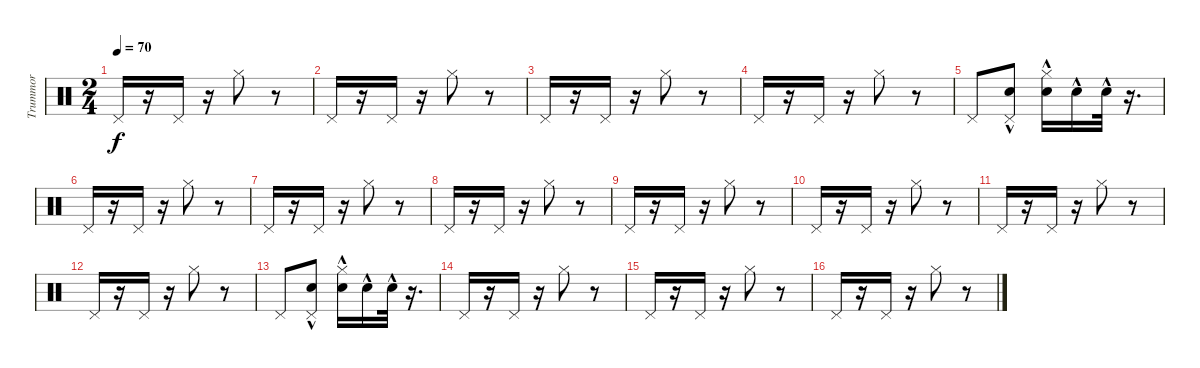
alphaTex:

\track ("Trummor" "Trummor") {instrument percussion}
\staff {score}
\articulation defaults
\ts (2 4)
\tempo 70
\clef neutral
\ks c "Pedal Hi-Hat (hit)".16{dy f}
r.16 "Pedal Hi-Hat (hit)".16 r.16 "Hi-Hat (closed)".8 r.8 |
"Pedal Hi-Hat (hit)".16 r.16 "Pedal Hi-Hat (hit)".16 r.16 "Hi-Hat (closed)".8 r.8 |
"Pedal Hi-Hat (hit)".16 r.16 "Pedal Hi-Hat (hit)".16 r.16 "Hi-Hat (closed)".8 r.8 |
"Pedal Hi-Hat (hit)".16 r.16 "Pedal Hi-Hat (hit)".16 r.16 "Hi-Hat (closed)".8 r.8 |
"Pedal Hi-Hat (hit)".8 ("Pedal Hi-Hat (hit)" "Snare (hit) 2"{hac}).8 ("Hi-Hat (closed)" "Snare (hit) 2"{hac}).16 "Snare (hit) 2"{hac}.16 "Snare (hit) 2"{hac}.32 r.16{d} |
"Pedal Hi-Hat (hit)".16 r.16 "Pedal Hi-Hat (hit)".16 r.16 "Hi-Hat (closed)".8 r.8 |
"Pedal Hi-Hat (hit)".16 r.16 "Pedal Hi-Hat (hit)".16 r.16 "Hi-Hat (closed)".8 r.8 |
"Pedal Hi-Hat (hit)".16 r.16 "Pedal Hi-Hat (hit)".16 r.16 "Hi-Hat (closed)".8 r.8 |
"Pedal Hi-Hat (hit)".16 r.16 "Pedal Hi-Hat (hit)".16 r.16 "Hi-Hat (closed)".8 r.8 |
"Pedal Hi-Hat (hit)".16 r.16 "Pedal Hi-Hat (hit)".16 r.16 "Hi-Hat (closed)".8 r.8 |
"Pedal Hi-Hat (hit)".16 r.16 "Pedal Hi-Hat (hit)".16 r.16 "Hi-Hat (closed)".8 r.8 |
"Pedal Hi-Hat (hit)".16 r.16 "Pedal Hi-Hat (hit)".16 r.16 "Hi-Hat (closed)".8 r.8 |
"Pedal Hi-Hat (hit)".8 ("Pedal Hi-Hat (hit)" "Snare (hit) 2"{hac}).8 ("Hi-Hat (closed)" "Snare (hit) 2"{hac}).16 "Snare (hit) 2"{hac}.16 "Snare (hit) 2"{hac}.32 r.16{d} |
"Pedal Hi-Hat (hit)".16 r.16 "Pedal Hi-Hat (hit)".16 r.16 "Hi-Hat (closed)".8 r.8 |
"Pedal Hi-Hat (hit)".16 r.16 "Pedal Hi-Hat (hit)".16 r.16 "Hi-Hat (closed)".8 r.8 |
"Pedal Hi-Hat (hit)".16 r.16 "Pedal Hi-Hat (hit)".16 r.16 "Hi-Hat (closed)".8 r.8
